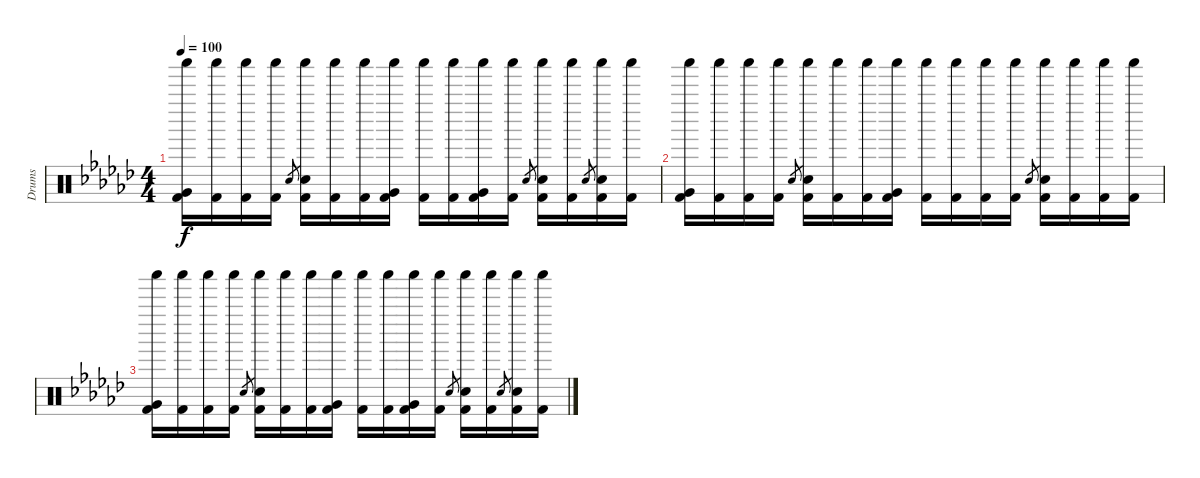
\track ("Drums" "Drums") {instrument percussion}
\staff {score}
\articulation defaults
\ts (4 4)
\tempo 100
\clef neutral
\ks gb
("Shaker (hit)" "Very Low Tom (hit)" "Kick (hit) 2").16{dy f} ("Shaker (hit)" "Kick (hit) 2").16 ("Shaker (hit)" "Kick (hit) 2").16 ("Shaker (hit)" "Kick (hit) 2").16 "Electric Snare (hit)".8{gr} ("Shaker (hit)" "Electric Snare (hit)" "Kick (hit) 2").16 ("Shaker (hit)" "Kick (hit) 2").16 ("Shaker (hit)" "Kick (hit) 2").16 ("Shaker (hit)" "Very Low Tom (hit)" "Kick (hit) 2").16 ("Shaker (hit)" "Kick (hit) 2").16 ("Shaker (hit)" "Kick (hit) 2").16 ("Shaker (hit)" "Very Low Tom (hit)" "Kick (hit) 2").16 ("Shaker (hit)" "Kick (hit) 2").16 "Electric Snare (hit)".8{gr} ("Shaker (hit)" "Electric Snare (hit)" "Kick (hit) 2").16 ("Shaker (hit)" "Kick (hit) 2").16 "Electric Snare (hit)".8{gr} ("Shaker (hit)" "Electric Snare (hit)" "Kick (hit) 2").16 ("Shaker (hit)" "Kick (hit) 2").16 |
("Shaker (hit)" "Very Low Tom (hit)" "Kick (hit) 2").16 ("Shaker (hit)" "Kick (hit) 2").16 ("Shaker (hit)" "Kick (hit) 2").16 ("Shaker (hit)" "Kick (hit) 2").16 "Electric Snare (hit)".8{gr} ("Shaker (hit)" "Electric Snare (hit)" "Kick (hit) 2").16 ("Shaker (hit)" "Kick (hit) 2").16 ("Shaker (hit)" "Kick (hit) 2").16 ("Shaker (hit)" "Very Low Tom (hit)" "Kick (hit) 2").16 ("Shaker (hit)" "Kick (hit) 2").16 ("Shaker (hit)" "Kick (hit) 2").16 ("Shaker (hit)" "Kick (hit) 2").16 ("Shaker (hit)" "Kick (hit) 2").16 "Electric Snare (hit)".8{gr} ("Shaker (hit)" "Electric Snare (hit)" "Kick (hit) 2").16 ("Shaker (hit)" "Kick (hit) 2").16 ("Shaker (hit)" "Kick (hit) 2").16 ("Shaker (hit)" "Kick (hit) 2").16 |
("Shaker (hit)" "Very Low Tom (hit)" "Kick (hit) 2").16 ("Shaker (hit)" "Kick (hit) 2").16 ("Shaker (hit)" "Kick (hit) 2").16 ("Shaker (hit)" "Kick (hit) 2").16 "Electric Snare (hit)".8{gr} ("Shaker (hit)" "Electric Snare (hit)" "Kick (hit) 2").16 ("Shaker (hit)" "Kick (hit) 2").16 ("Shaker (hit)" "Kick (hit) 2").16 ("Shaker (hit)" "Very Low Tom (hit)" "Kick (hit) 2").16 ("Shaker (hit)" "Kick (hit) 2").16 ("Shaker (hit)" "Kick (hit) 2").16 ("Shaker (hit)" "Very Low Tom (hit)" "Kick (hit) 2").16 ("Shaker (hit)" "Kick (hit) 2").16 "Electric Snare (hit)".8{gr} ("Shaker (hit)" "Electric Snare (hit)" "Kick (hit) 2").16 ("Shaker (hit)" "Kick (hit) 2").16 "Electric Snare (hit)".8{gr} ("Shaker (hit)" "Electric Snare (hit)" "Kick (hit) 2").16 ("Shaker (hit)" "Kick (hit) 2").16
